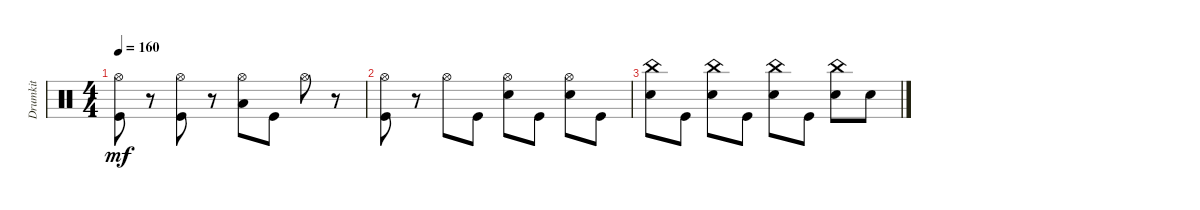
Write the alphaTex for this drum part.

\track ("Drumkit" "Drumkit") {solo instrument percussion}
\staff {score}
\articulation defaults
\ts (4 4)
\tempo 160
\clef neutral
\ks c
("Hi-Hat (open)" "Kick (hit)").8{dy mf} r.8 ("Hi-Hat (open)" "Kick (hit)").8 r.8 ("Hi-Hat (open)" "Low Floor Tom (hit)").8 "Kick (hit)".8 "Hi-Hat (open)".8 r.8 |
("Hi-Hat (open)" "Kick (hit)").8 r.8 "Hi-Hat (open)".8 "Kick (hit)".8 ("Hi-Hat (open)" "Snare (hit) 2").8 "Kick (hit)".8 ("Hi-Hat (open)" "Snare (hit) 2").8 "Kick (hit)".8 |
("Snare (hit) 2" "China (hit)").8 "Kick (hit)".8 ("Snare (hit) 2" "China (hit)").8 "Kick (hit)".8 ("Snare (hit) 2" "China (hit)").8 "Kick (hit)".8 ("Snare (hit) 2" "China (hit)").8 "Snare (hit) 2".8
